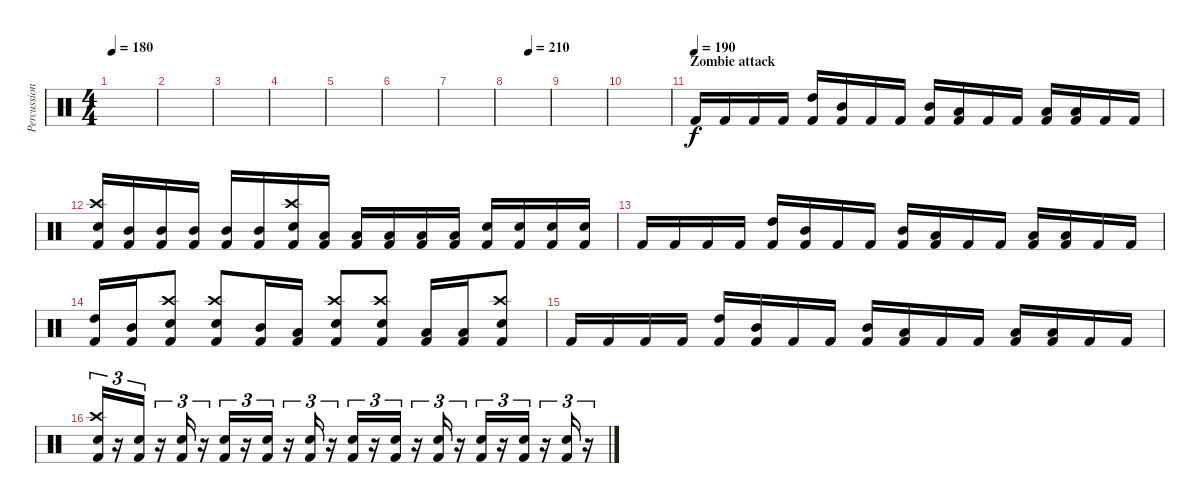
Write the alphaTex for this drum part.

\track ("Percussion" "Percussion") {instrument percussion}
\staff {score}
\articulation defaults
\ts (4 4)
\tempo 180
\clef neutral
\ks c
|
|
|
|
|
|
|
\tempo (210 0.5)
|
|
|
\section ("" "Zombie attack")
\tempo (190)
"Kick (hit) 2".16 "Kick (hit) 2".16 "Kick (hit) 2".16 "Kick (hit) 2".16 ("High Tom (hit)" "Kick (hit) 2").16 ("Mid Tom (hit)" "Kick (hit) 2").16 "Kick (hit) 2".16 "Kick (hit) 2".16 ("Mid Tom (hit)" "Kick (hit) 2").16 ("Low Tom (hit)" "Kick (hit) 2").16 "Kick (hit) 2".16 "Kick (hit) 2".16 ("Low Tom (hit)" "Kick (hit) 2").16 ("Low Floor Tom (hit)" "Kick (hit) 2").16 "Kick (hit) 2".16 "Kick (hit) 2".16 |
("Crash high (hit)" "Electric Snare (hit)" "Kick (hit) 2").16 ("Mid Tom (hit)" "Kick (hit) 2").16 ("Mid Tom (hit)" "Kick (hit) 2").16 ("Mid Tom (hit)" "Kick (hit) 2").16 ("Mid Tom (hit)" "Kick (hit) 2").16 ("Mid Tom (hit)" "Kick (hit) 2").16 ("Crash high (hit)" "Electric Snare (hit)" "Kick (hit) 2").16 ("Low Tom (hit)" "Kick (hit) 2").16 ("Low Tom (hit)" "Kick (hit) 2").16 ("Low Tom (hit)" "Kick (hit) 2").16 ("Low Tom (hit)" "Kick (hit) 2").16 ("Low Tom (hit)" "Kick (hit) 2").16 ("Electric Snare (hit)" "Kick (hit) 2").16 ("Electric Snare (hit)" "Kick (hit) 2").16 ("Electric Snare (hit)" "Kick (hit) 2").16 ("Electric Snare (hit)" "Kick (hit) 2").16 |
"Kick (hit) 2".16 "Kick (hit) 2".16 "Kick (hit) 2".16 "Kick (hit) 2".16 ("High Tom (hit)" "Kick (hit) 2").16 ("Mid Tom (hit)" "Kick (hit) 2").16 "Kick (hit) 2".16 "Kick (hit) 2".16 ("Mid Tom (hit)" "Kick (hit) 2").16 ("Low Tom (hit)" "Kick (hit) 2").16 "Kick (hit) 2".16 "Kick (hit) 2".16 ("Low Tom (hit)" "Kick (hit) 2").16 ("Low Floor Tom (hit)" "Kick (hit) 2").16 "Kick (hit) 2".16 "Kick (hit) 2".16 |
("High Tom (hit)" "Kick (hit) 2").16 ("Mid Tom (hit)" "Kick (hit) 2").16 ("Crash high (hit)" "Electric Snare (hit)" "Kick (hit) 2").8 ("Crash high (hit)" "Electric Snare (hit)" "Kick (hit) 2").8 ("Mid Tom (hit)" "Kick (hit) 2").16 ("Low Tom (hit)" "Kick (hit) 2").16 ("Crash high (hit)" "Electric Snare (hit)" "Kick (hit) 2").8 ("Crash high (hit)" "Electric Snare (hit)" "Kick (hit) 2").8 ("Low Tom (hit)" "Kick (hit) 2").16 ("Low Floor Tom (hit)" "Kick (hit) 2").16 ("Crash high (hit)" "Electric Snare (hit)" "Kick (hit) 2").8 |
"Kick (hit) 2".16 "Kick (hit) 2".16 "Kick (hit) 2".16 "Kick (hit) 2".16 ("High Tom (hit)" "Kick (hit) 2").16 ("Mid Tom (hit)" "Kick (hit) 2").16 "Kick (hit) 2".16 "Kick (hit) 2".16 ("Mid Tom (hit)" "Kick (hit) 2").16 ("Low Tom (hit)" "Kick (hit) 2").16 "Kick (hit) 2".16 "Kick (hit) 2".16 ("Low Tom (hit)" "Kick (hit) 2").16 ("Low Floor Tom (hit)" "Kick (hit) 2").16 "Kick (hit) 2".16 "Kick (hit) 2".16 |
("Crash high (hit)" "Electric Snare (hit)" "Kick (hit) 2").16{tu (3 2)} r.16{tu (3 2)} ("Electric Snare (hit)" "Kick (hit) 2").16{tu (3 2)} r.16{tu (3 2)} ("Electric Snare (hit)" "Kick (hit) 2").16{tu (3 2)} r.16{tu (3 2)} ("Electric Snare (hit)" "Kick (hit) 2").16{tu (3 2)} r.16{tu (3 2)} ("Electric Snare (hit)" "Kick (hit) 2").16{tu (3 2)} r.16{tu (3 2)} ("Electric Snare (hit)" "Kick (hit) 2").16{tu (3 2)} r.16{tu (3 2)} ("Electric Snare (hit)" "Kick (hit) 2").16{tu (3 2)} r.16{tu (3 2)} ("Electric Snare (hit)" "Kick (hit) 2").16{tu (3 2)} r.16{tu (3 2)} ("Electric Snare (hit)" "Kick (hit) 2").16{tu (3 2)} r.16{tu (3 2)} ("Electric Snare (hit)" "Kick (hit) 2").16{tu (3 2)} r.16{tu (3 2)} ("Electric Snare (hit)" "Kick (hit) 2").16{tu (3 2)} r.16{tu (3 2)} ("Electric Snare (hit)" "Kick (hit) 2").16{tu (3 2)} r.16{tu (3 2)}
